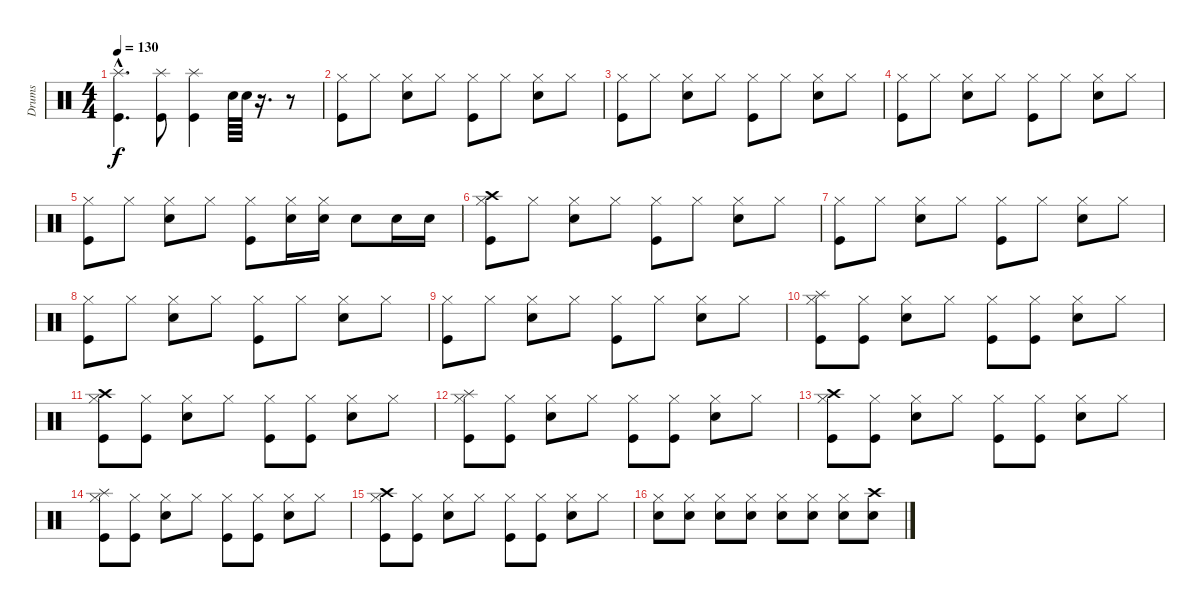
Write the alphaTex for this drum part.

\track ("Drums" "Drums") {instrument percussion}
\staff {score}
\articulation defaults
\ts (4 4)
\tempo 130
\clef neutral
\ks c
("Kick (hit)"{hac} "Splash (hit)"{hac}).4{d dy f} ("Kick (hit)" "Splash (hit)").8 ("Kick (hit)" "Splash (hit)").4 "Snare (hit) 2".64 "Snare (hit) 2".64 r.16{d} r.8 |
("Hi-Hat (closed)" "Kick (hit)").8 "Hi-Hat (closed)".8 ("Hi-Hat (closed)" "Snare (hit) 2").8 "Hi-Hat (closed)".8 ("Hi-Hat (closed)" "Kick (hit)").8 "Hi-Hat (closed)".8 ("Hi-Hat (closed)" "Snare (hit) 2").8 "Hi-Hat (closed)".8 |
("Hi-Hat (closed)" "Kick (hit)").8 "Hi-Hat (closed)".8 ("Hi-Hat (closed)" "Snare (hit) 2").8 "Hi-Hat (closed)".8 ("Hi-Hat (closed)" "Kick (hit)").8 "Hi-Hat (closed)".8 ("Hi-Hat (closed)" "Snare (hit) 2").8 "Hi-Hat (closed)".8 |
("Hi-Hat (closed)" "Kick (hit)").8 "Hi-Hat (closed)".8 ("Hi-Hat (closed)" "Snare (hit) 2").8 "Hi-Hat (closed)".8 ("Hi-Hat (closed)" "Kick (hit)").8 "Hi-Hat (closed)".8 ("Hi-Hat (closed)" "Snare (hit) 2").8 "Hi-Hat (closed)".8 |
("Hi-Hat (closed)" "Kick (hit)").8 "Hi-Hat (closed)".8 ("Hi-Hat (closed)" "Snare (hit) 2").8 "Hi-Hat (closed)".8 ("Hi-Hat (closed)" "Kick (hit)").8 ("Hi-Hat (closed)" "Snare (hit) 2").16 ("Hi-Hat (closed)" "Snare (hit) 2").16 "Snare (hit) 2".8 "Snare (hit) 2".16 "Snare (hit) 2".16 |
("Hi-Hat (closed)" "Kick (hit)" "Crash high (hit)").8 "Hi-Hat (closed)".8 ("Hi-Hat (closed)" "Snare (hit) 2").8 "Hi-Hat (closed)".8 ("Hi-Hat (closed)" "Kick (hit)").8 "Hi-Hat (closed)".8 ("Hi-Hat (closed)" "Snare (hit) 2").8 "Hi-Hat (closed)".8 |
("Hi-Hat (closed)" "Kick (hit)").8 "Hi-Hat (closed)".8 ("Hi-Hat (closed)" "Snare (hit) 2").8 "Hi-Hat (closed)".8 ("Hi-Hat (closed)" "Kick (hit)").8 "Hi-Hat (closed)".8 ("Hi-Hat (closed)" "Snare (hit) 2").8 "Hi-Hat (closed)".8 |
("Hi-Hat (closed)" "Kick (hit)").8 "Hi-Hat (closed)".8 ("Hi-Hat (closed)" "Snare (hit) 2").8 "Hi-Hat (closed)".8 ("Hi-Hat (closed)" "Kick (hit)").8 "Hi-Hat (closed)".8 ("Hi-Hat (closed)" "Snare (hit) 2").8 "Hi-Hat (closed)".8 |
("Hi-Hat (closed)" "Kick (hit)").8 "Hi-Hat (closed)".8 ("Hi-Hat (closed)" "Snare (hit) 2").8 "Hi-Hat (closed)".8 ("Hi-Hat (closed)" "Kick (hit)").8 "Hi-Hat (closed)".8 ("Hi-Hat (closed)" "Snare (hit) 2").8 "Hi-Hat (closed)".8 |
("Hi-Hat (closed)" "Kick (hit)" "Splash (hit)").8 ("Hi-Hat (closed)" "Kick (hit)").8 ("Hi-Hat (closed)" "Snare (hit) 2").8 "Hi-Hat (closed)".8 ("Hi-Hat (closed)" "Kick (hit)").8 ("Hi-Hat (closed)" "Kick (hit)").8 ("Hi-Hat (closed)" "Snare (hit) 2").8 "Hi-Hat (closed)".8 |
("Hi-Hat (closed)" "Kick (hit)" "Crash high (hit)").8 ("Hi-Hat (closed)" "Kick (hit)").8 ("Hi-Hat (closed)" "Snare (hit) 2").8 "Hi-Hat (closed)".8 ("Hi-Hat (closed)" "Kick (hit)").8 ("Hi-Hat (closed)" "Kick (hit)").8 ("Hi-Hat (closed)" "Snare (hit) 2").8 "Hi-Hat (closed)".8 |
("Hi-Hat (closed)" "Kick (hit)" "Splash (hit)").8 ("Hi-Hat (closed)" "Kick (hit)").8 ("Hi-Hat (closed)" "Snare (hit) 2").8 "Hi-Hat (closed)".8 ("Hi-Hat (closed)" "Kick (hit)").8 ("Hi-Hat (closed)" "Kick (hit)").8 ("Hi-Hat (closed)" "Snare (hit) 2").8 "Hi-Hat (closed)".8 |
("Hi-Hat (closed)" "Kick (hit)" "Crash high (hit)").8 ("Hi-Hat (closed)" "Kick (hit)").8 ("Hi-Hat (closed)" "Snare (hit) 2").8 "Hi-Hat (closed)".8 ("Hi-Hat (closed)" "Kick (hit)").8 ("Hi-Hat (closed)" "Kick (hit)").8 ("Hi-Hat (closed)" "Snare (hit) 2").8 "Hi-Hat (closed)".8 |
("Hi-Hat (closed)" "Kick (hit)" "Splash (hit)").8 ("Hi-Hat (closed)" "Kick (hit)").8 ("Hi-Hat (closed)" "Snare (hit) 2").8 "Hi-Hat (closed)".8 ("Hi-Hat (closed)" "Kick (hit)").8 ("Hi-Hat (closed)" "Kick (hit)").8 ("Hi-Hat (closed)" "Snare (hit) 2").8 "Hi-Hat (closed)".8 |
("Hi-Hat (closed)" "Kick (hit)" "Crash high (hit)").8 ("Hi-Hat (closed)" "Kick (hit)").8 ("Hi-Hat (closed)" "Snare (hit) 2").8 "Hi-Hat (closed)".8 ("Hi-Hat (closed)" "Kick (hit)").8 ("Hi-Hat (closed)" "Kick (hit)").8 ("Hi-Hat (closed)" "Snare (hit) 2").8 "Hi-Hat (closed)".8 |
("Hi-Hat (closed)" "Snare (hit) 2").8 ("Hi-Hat (closed)" "Snare (hit) 2").8 ("Hi-Hat (closed)" "Snare (hit) 2").8 ("Hi-Hat (closed)" "Snare (hit) 2").8 ("Hi-Hat (closed)" "Snare (hit) 2").8 ("Hi-Hat (closed)" "Snare (hit) 2").8 ("Hi-Hat (closed)" "Snare (hit) 2").8 ("Snare (hit) 2" "Crash high (hit)").8
